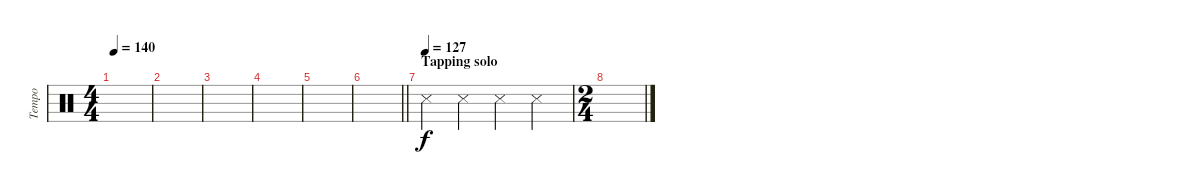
\track ("Tempo" "Tempo") {instrument percussion}
\staff {score}
\articulation defaults
\ts (4 4)
\tempo 140
\clef neutral
\ks c
|
|
|
|
|
\barLineRight lightlight
|
\section ("" "Tapping solo")
\tempo (127)
"Snare (side stick) 3".4 "Snare (side stick) 3".4 "Snare (side stick) 3".4 "Snare (side stick) 3".4 |
\ts (2 4)
